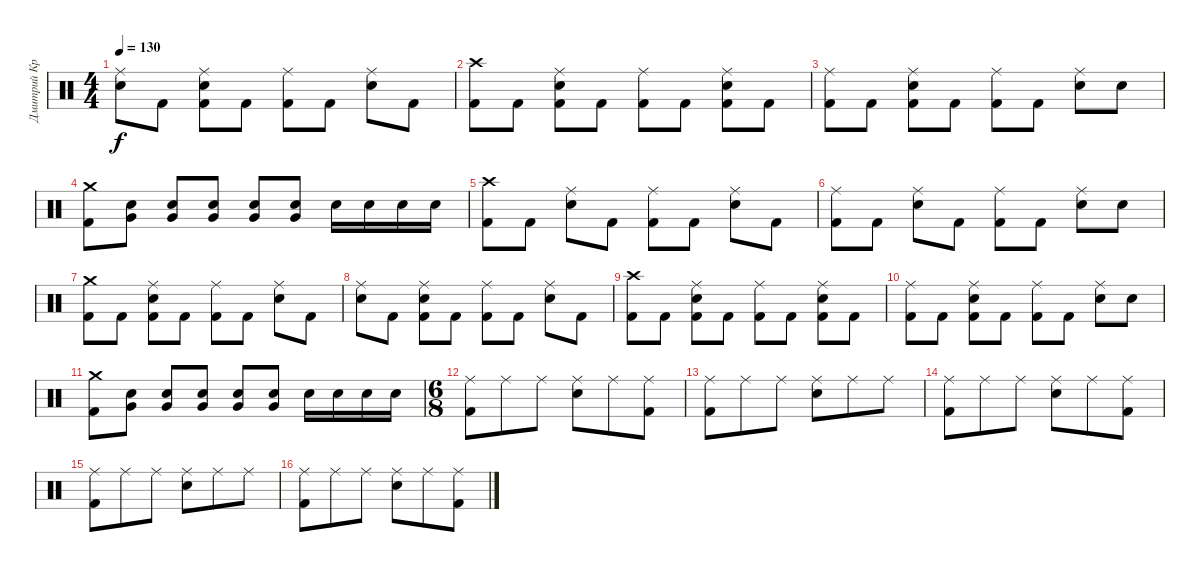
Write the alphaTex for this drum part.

\track ("Дмитрий Кривенков" "Дмитрий Кр") {instrument percussion}
\staff {score}
\articulation defaults
\ts (4 4)
\tempo 130
\clef neutral
\ks c
("Ride (middle)" "Electric Snare (hit)").8{dy f} "Kick (hit) 2".8 ("Ride (middle)" "Electric Snare (hit)" "Kick (hit) 2").8 "Kick (hit) 2".8 ("Ride (middle)" "Kick (hit) 2").8 "Kick (hit) 2".8 ("Ride (middle)" "Electric Snare (hit)").8 "Kick (hit) 2".8 |
("Kick (hit) 2" "Crash high (hit)").8 "Kick (hit) 2".8 ("Ride (middle)" "Kick (hit) 2" "Electric Snare (hit)").8 "Kick (hit) 2".8 ("Ride (middle)" "Kick (hit) 2").8 "Kick (hit) 2".8 ("Kick (hit) 2" "Electric Snare (hit)" "Ride (middle)").8 "Kick (hit) 2".8 |
("Ride (middle)" "Kick (hit) 2").8 "Kick (hit) 2".8 ("Kick (hit) 2" "Electric Snare (hit)" "Ride (middle)").8 "Kick (hit) 2".8 ("Kick (hit) 2" "Ride (middle)").8 "Kick (hit) 2".8 ("Ride (middle)" "Electric Snare (hit)").8 "Electric Snare (hit)".8 |
("Kick (hit) 2" "Crash medium (hit)").8 ("Electric Snare (hit)" "Very Low Tom (hit)").8 ("Very Low Tom (hit)" "Electric Snare (hit)").8 ("Electric Snare (hit)" "Very Low Tom (hit)").8 ("Electric Snare (hit)" "Very Low Tom (hit)").8 ("Very Low Tom (hit)" "Electric Snare (hit)").8 "Electric Snare (hit)".16 "Electric Snare (hit)".16 "Electric Snare (hit)".16 "Electric Snare (hit)".16 |
("Crash high (hit)" "Kick (hit) 2").8 "Kick (hit) 2".8 ("Ride (middle)" "Electric Snare (hit)").8 "Kick (hit) 2".8 ("Ride (middle)" "Kick (hit) 2").8 "Kick (hit) 2".8 ("Ride (middle)" "Electric Snare (hit)").8 "Kick (hit) 2".8 |
("Kick (hit) 2" "Ride (middle)").8 "Kick (hit) 2".8 ("Ride (middle)" "Electric Snare (hit)").8 "Kick (hit) 2".8 ("Kick (hit) 2" "Ride (middle)").8 "Kick (hit) 2".8 ("Electric Snare (hit)" "Ride (middle)").8 "Electric Snare (hit)".8 |
("Crash medium (hit)" "Kick (hit) 2").8 "Kick (hit) 2".8 ("Ride (middle)" "Kick (hit) 2" "Electric Snare (hit)").8 "Kick (hit) 2".8 ("Kick (hit) 2" "Ride (middle)").8 "Kick (hit) 2".8 ("Ride (middle)" "Electric Snare (hit)").8 "Kick (hit) 2".8 |
("Ride (middle)" "Electric Snare (hit)").8 "Kick (hit) 2".8 ("Ride (middle)" "Electric Snare (hit)" "Kick (hit) 2").8 "Kick (hit) 2".8 ("Ride (middle)" "Kick (hit) 2").8 "Kick (hit) 2".8 ("Ride (middle)" "Electric Snare (hit)").8 "Kick (hit) 2".8 |
("Kick (hit) 2" "Crash high (hit)").8 "Kick (hit) 2".8 ("Ride (middle)" "Kick (hit) 2" "Electric Snare (hit)").8 "Kick (hit) 2".8 ("Ride (middle)" "Kick (hit) 2").8 "Kick (hit) 2".8 ("Kick (hit) 2" "Electric Snare (hit)" "Ride (middle)").8 "Kick (hit) 2".8 |
("Ride (middle)" "Kick (hit) 2").8 "Kick (hit) 2".8 ("Kick (hit) 2" "Electric Snare (hit)" "Ride (middle)").8 "Kick (hit) 2".8 ("Kick (hit) 2" "Ride (middle)").8 "Kick (hit) 2".8 ("Ride (middle)" "Electric Snare (hit)").8 "Electric Snare (hit)".8 |
("Kick (hit) 2" "Crash medium (hit)").8 ("Electric Snare (hit)" "Very Low Tom (hit)").8 ("Very Low Tom (hit)" "Electric Snare (hit)").8 ("Electric Snare (hit)" "Very Low Tom (hit)").8 ("Electric Snare (hit)" "Very Low Tom (hit)").8 ("Very Low Tom (hit)" "Electric Snare (hit)").8 "Electric Snare (hit)".16 "Electric Snare (hit)".16 "Electric Snare (hit)".16 "Electric Snare (hit)".16 |
\ts (6 8)
("Ride (middle)" "Kick (hit) 2").8 "Ride (middle)".8 "Ride (middle)".8 ("Ride (middle)" "Electric Snare (hit)").8 "Ride (middle)".8 ("Ride (middle)" "Kick (hit) 2").8 |
("Ride (middle)" "Kick (hit) 2").8 "Ride (middle)".8 "Ride (middle)".8 ("Ride (middle)" "Electric Snare (hit)").8 "Ride (middle)".8 "Ride (middle)".8 |
("Ride (middle)" "Kick (hit) 2").8 "Ride (middle)".8 "Ride (middle)".8 ("Ride (middle)" "Electric Snare (hit)").8 "Ride (middle)".8 ("Ride (middle)" "Kick (hit) 2").8 |
("Ride (middle)" "Kick (hit) 2").8 "Ride (middle)".8 "Ride (middle)".8 ("Ride (middle)" "Electric Snare (hit)").8 "Ride (middle)".8 "Ride (middle)".8 |
("Ride (middle)" "Kick (hit) 2").8 "Ride (middle)".8 "Ride (middle)".8 ("Ride (middle)" "Electric Snare (hit)").8 "Ride (middle)".8 ("Ride (middle)" "Kick (hit) 2").8
